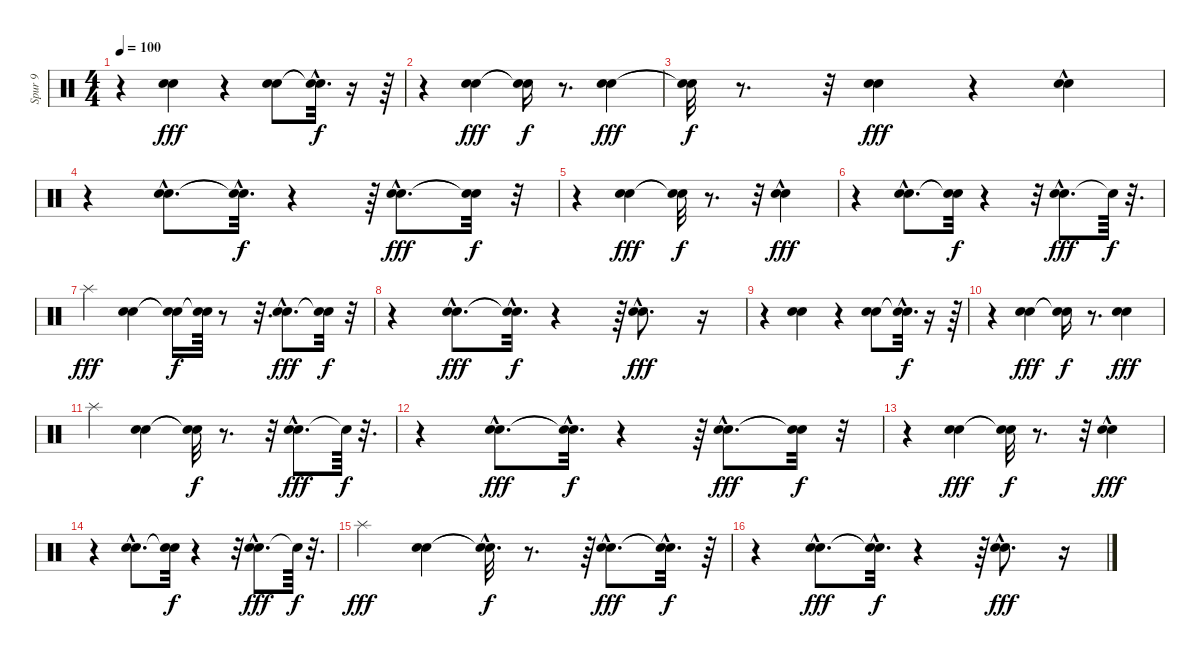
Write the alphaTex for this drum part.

\track ("Spur 9" "Spur 9") {instrument percussion}
\staff {score}
\articulation defaults
\ts (4 4)
\tempo 100
\clef neutral
\ks c
r.4{dy fff} ("Snare (hit) 2" "Metronome (bell)").4 r.4 ("Snare (hit) 2" "Metronome (bell)").8 ("Snare (hit)"{hac t} "Snare (hit)"{t}).32{d dy f} r.16 r.64 |
r.4 ("Metronome (bell)" "Snare (hit) 2").4{dy fff} ("Snare (hit)"{t} "Snare (hit)"{t}).16{dy f} r.8{d} ("Metronome (bell)" "Snare (hit) 2").4{dy fff} |
("Snare (hit)"{t} "Snare (hit)"{t}).32{dy f} r.8{d} r.32 ("Metronome (bell)" "Snare (hit) 2").4{dy fff} r.4 ("Metronome (bell)"{hac} "Snare (hit) 2").4 |
r.4 ("Metronome (bell)"{hac} "Snare (hit) 2"{hac}).8{d} ("Snare (hit)"{hac t} "Snare (hit)"{hac t}).32{d dy f} r.4 r.64 ("Metronome (bell)"{hac} "Snare (hit) 2"{hac}).8{d dy fff} ("Snare (hit)"{t} "Snare (hit)"{t}).32{dy f} r.32 |
r.4 ("Metronome (bell)" "Snare (hit) 2").4{dy fff} ("Snare (hit)"{t} "Snare (hit)"{t}).32{dy f} r.8{d} r.32 ("Snare (hit) 2" "Metronome (bell)"{hac}).4{dy fff} |
r.4 ("Metronome (bell)"{hac} "Snare (hit) 2"{hac}).8{d} ("Snare (hit)"{t} "Snare (hit)"{t}).32{dy f} r.4 r.32 ("Metronome (bell)"{hac} "Snare (hit) 2"{hac}).8{d dy fff} "Snare (hit)"{t}.64{dy f} r.32{d} |
"Splash (hit)".4{dy fff} ("Snare (hit) 2" "Metronome (bell)").4 ("Snare (hit)"{t} "Snare (hit)"{t}).16{dy f} ("Snare (hit)"{t} "Snare (hit)"{t}).64 r.8 r.32{d} ("Snare (hit) 2"{hac} "Metronome (bell)"{hac}).8{d dy fff} ("Snare (hit)"{t} "Snare (hit)"{t}).32{dy f} r.32 |
r.4 ("Metronome (bell)"{hac} "Snare (hit) 2"{hac}).8{d dy fff} ("Snare (hit)"{hac t} "Snare (hit)"{hac t}).32{d dy f} r.4 r.64 ("Metronome (bell)"{hac} "Snare (hit) 2"{hac}).8{d dy fff} r.16 |
r.4 ("Snare (hit) 2" "Metronome (bell)").4 r.4 ("Snare (hit) 2" "Metronome (bell)").8 ("Snare (hit)"{hac t} "Snare (hit)"{t}).32{d dy f} r.16 r.64 |
r.4 ("Metronome (bell)" "Snare (hit) 2").4{dy fff} ("Snare (hit)"{t} "Snare (hit)"{t}).16{dy f} r.8{d} ("Metronome (bell)" "Snare (hit) 2").4{dy fff} |
"Splash (hit)".4 ("Snare (hit) 2" "Metronome (bell)").4 ("Snare (hit)"{t} "Snare (hit)"{t}).32{dy f} r.8{d} r.32 ("Snare (hit) 2"{hac} "Metronome (bell)"{hac}).8{d dy fff} "Snare (hit)"{t}.64{dy f} r.32{d} |
r.4 ("Metronome (bell)"{hac} "Snare (hit) 2"{hac}).8{d dy fff} ("Snare (hit)"{hac t} "Snare (hit)"{hac t}).32{d dy f} r.4 r.64 ("Metronome (bell)"{hac} "Snare (hit) 2"{hac}).8{d dy fff} ("Snare (hit)"{t} "Snare (hit)"{t}).32{dy f} r.32 |
r.4 ("Metronome (bell)" "Snare (hit) 2").4{dy fff} ("Snare (hit)"{t} "Snare (hit)"{t}).32{dy f} r.8{d} r.32 ("Snare (hit) 2" "Metronome (bell)"{hac}).4{dy fff} |
r.4 ("Metronome (bell)"{hac} "Snare (hit) 2"{hac}).8{d} ("Snare (hit)"{t} "Snare (hit)"{t}).32{dy f} r.4 r.32 ("Metronome (bell)"{hac} "Snare (hit) 2"{hac}).8{d dy fff} "Snare (hit)"{t}.64{dy f} r.32{d} |
"Splash (hit)".4{dy fff} ("Snare (hit) 2" "Metronome (bell)").4 ("Snare (hit)"{hac t} "Snare (hit)"{hac t}).32{d dy f} r.8{d} r.64 ("Snare (hit) 2"{hac} "Metronome (bell)"{hac}).8{d dy fff} ("Snare (hit)"{hac t} "Snare (hit)"{t}).32{d dy f} r.64 |
r.4 ("Metronome (bell)"{hac} "Snare (hit) 2"{hac}).8{d dy fff} ("Snare (hit)"{hac t} "Snare (hit)"{hac t}).32{d dy f} r.4 r.64 ("Metronome (bell)"{hac} "Snare (hit) 2"{hac}).8{d dy fff} r.16
